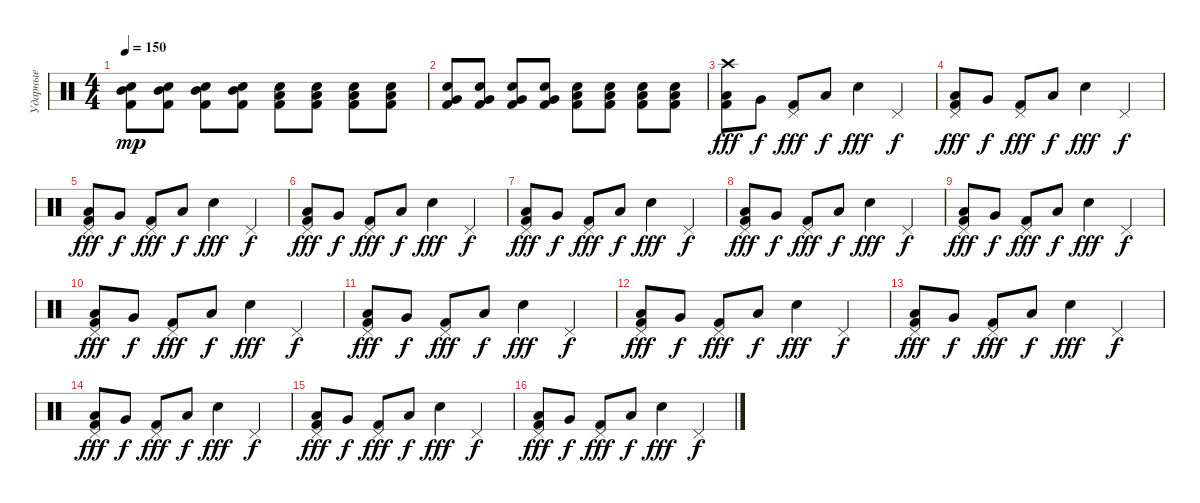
\track ("Ударные" "Ударные") {instrument percussion}
\staff {score}
\articulation defaults
\ts (4 4)
\tempo 150
\clef neutral
\ks c
("Electric Snare (hit)" "Kick (hit) 2" "Mid Tom (hit)").8{dy mp} ("Electric Snare (hit)" "Kick (hit) 2" "Mid Tom (hit)").8 ("Electric Snare (hit)" "Kick (hit) 2" "Mid Tom (hit)").8 ("Electric Snare (hit)" "Kick (hit) 2" "Mid Tom (hit)").8 ("Electric Snare (hit)" "Kick (hit) 2" "Low Tom (hit)").8 ("Electric Snare (hit)" "Kick (hit) 2" "Low Tom (hit)").8 ("Electric Snare (hit)" "Kick (hit) 2" "Low Tom (hit)").8 ("Electric Snare (hit)" "Kick (hit) 2" "Low Tom (hit)").8 |
("Electric Snare (hit)" "Kick (hit) 2" "Very Low Tom (hit)").8 ("Electric Snare (hit)" "Kick (hit) 2" "Very Low Tom (hit)").8 ("Electric Snare (hit)" "Kick (hit) 2" "Very Low Tom (hit)").8 ("Electric Snare (hit)" "Kick (hit) 2" "Very Low Tom (hit)").8 ("Electric Snare (hit)" "Kick (hit) 2" "Low Floor Tom (hit)").8 ("Electric Snare (hit)" "Kick (hit) 2" "Low Floor Tom (hit)").8 ("Electric Snare (hit)" "Kick (hit) 2" "Low Floor Tom (hit)").8 ("Electric Snare (hit)" "Kick (hit) 2" "Low Floor Tom (hit)").8 |
("Crash high (hit)" "Kick (hit) 2" "Low Tom (hit)").8{dy fff} "Very Low Tom (hit)".8{dy f} ("Pedal Hi-Hat (hit)" "Kick (hit) 2").8{dy fff} "Low Floor Tom (hit)".8{dy f} "Electric Snare (hit)".4{dy fff} "Pedal Hi-Hat (hit)".4{dy f} |
("Pedal Hi-Hat (hit)" "Kick (hit) 2" "Low Tom (hit)").8{dy fff} "Very Low Tom (hit)".8{dy f} ("Pedal Hi-Hat (hit)" "Kick (hit) 2").8{dy fff} "Low Floor Tom (hit)".8{dy f} "Electric Snare (hit)".4{dy fff} "Pedal Hi-Hat (hit)".4{dy f} |
("Pedal Hi-Hat (hit)" "Kick (hit) 2" "Low Tom (hit)").8{dy fff} "Very Low Tom (hit)".8{dy f} ("Pedal Hi-Hat (hit)" "Kick (hit) 2").8{dy fff} "Low Floor Tom (hit)".8{dy f} "Electric Snare (hit)".4{dy fff} "Pedal Hi-Hat (hit)".4{dy f} |
("Pedal Hi-Hat (hit)" "Kick (hit) 2" "Low Tom (hit)").8{dy fff} "Very Low Tom (hit)".8{dy f} ("Pedal Hi-Hat (hit)" "Kick (hit) 2").8{dy fff} "Low Floor Tom (hit)".8{dy f} "Electric Snare (hit)".4{dy fff} "Pedal Hi-Hat (hit)".4{dy f} |
("Pedal Hi-Hat (hit)" "Kick (hit) 2" "Low Tom (hit)").8{dy fff} "Very Low Tom (hit)".8{dy f} ("Pedal Hi-Hat (hit)" "Kick (hit) 2").8{dy fff} "Low Floor Tom (hit)".8{dy f} "Electric Snare (hit)".4{dy fff} "Pedal Hi-Hat (hit)".4{dy f} |
("Pedal Hi-Hat (hit)" "Kick (hit) 2" "Low Tom (hit)").8{dy fff} "Very Low Tom (hit)".8{dy f} ("Pedal Hi-Hat (hit)" "Kick (hit) 2").8{dy fff} "Low Floor Tom (hit)".8{dy f} "Electric Snare (hit)".4{dy fff} "Pedal Hi-Hat (hit)".4{dy f} |
("Pedal Hi-Hat (hit)" "Kick (hit) 2" "Low Tom (hit)").8{dy fff} "Very Low Tom (hit)".8{dy f} ("Pedal Hi-Hat (hit)" "Kick (hit) 2").8{dy fff} "Low Floor Tom (hit)".8{dy f} "Electric Snare (hit)".4{dy fff} "Pedal Hi-Hat (hit)".4{dy f} |
("Pedal Hi-Hat (hit)" "Kick (hit) 2" "Low Tom (hit)").8{dy fff} "Very Low Tom (hit)".8{dy f} ("Pedal Hi-Hat (hit)" "Kick (hit) 2").8{dy fff} "Low Floor Tom (hit)".8{dy f} "Electric Snare (hit)".4{dy fff} "Pedal Hi-Hat (hit)".4{dy f} |
("Pedal Hi-Hat (hit)" "Kick (hit) 2" "Low Tom (hit)").8{dy fff} "Very Low Tom (hit)".8{dy f} ("Pedal Hi-Hat (hit)" "Kick (hit) 2").8{dy fff} "Low Floor Tom (hit)".8{dy f} "Electric Snare (hit)".4{dy fff} "Pedal Hi-Hat (hit)".4{dy f} |
("Pedal Hi-Hat (hit)" "Kick (hit) 2" "Low Tom (hit)").8{dy fff} "Very Low Tom (hit)".8{dy f} ("Pedal Hi-Hat (hit)" "Kick (hit) 2").8{dy fff} "Low Floor Tom (hit)".8{dy f} "Electric Snare (hit)".4{dy fff} "Pedal Hi-Hat (hit)".4{dy f} |
("Pedal Hi-Hat (hit)" "Kick (hit) 2" "Low Tom (hit)").8{dy fff} "Very Low Tom (hit)".8{dy f} ("Pedal Hi-Hat (hit)" "Kick (hit) 2").8{dy fff} "Low Floor Tom (hit)".8{dy f} "Electric Snare (hit)".4{dy fff} "Pedal Hi-Hat (hit)".4{dy f} |
("Pedal Hi-Hat (hit)" "Kick (hit) 2" "Low Tom (hit)").8{dy fff} "Very Low Tom (hit)".8{dy f} ("Pedal Hi-Hat (hit)" "Kick (hit) 2").8{dy fff} "Low Floor Tom (hit)".8{dy f} "Electric Snare (hit)".4{dy fff} "Pedal Hi-Hat (hit)".4{dy f} |
("Pedal Hi-Hat (hit)" "Kick (hit) 2" "Low Tom (hit)").8{dy fff} "Very Low Tom (hit)".8{dy f} ("Pedal Hi-Hat (hit)" "Kick (hit) 2").8{dy fff} "Low Floor Tom (hit)".8{dy f} "Electric Snare (hit)".4{dy fff} "Pedal Hi-Hat (hit)".4{dy f} |
("Pedal Hi-Hat (hit)" "Kick (hit) 2" "Low Tom (hit)").8{dy fff} "Very Low Tom (hit)".8{dy f} ("Pedal Hi-Hat (hit)" "Kick (hit) 2").8{dy fff} "Low Floor Tom (hit)".8{dy f} "Electric Snare (hit)".4{dy fff} "Pedal Hi-Hat (hit)".4{dy f}
